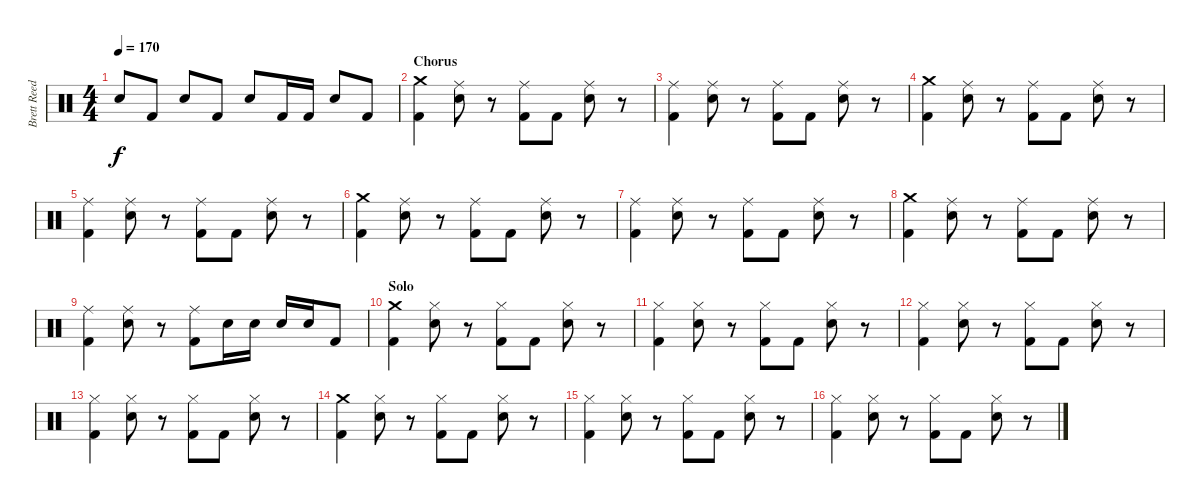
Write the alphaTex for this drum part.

\track ("Brett Reed" "Brett Reed") {instrument percussion}
\staff {score}
\articulation defaults
\ts (4 4)
\tempo 170
\clef neutral
\ks c "Snare (hit) 2".8{dy f} "Kick (hit) 2".8 "Snare (hit) 2".8 "Kick (hit) 2".8 "Snare (hit) 2".8 "Kick (hit) 2".16 "Kick (hit) 2".16 "Snare (hit) 2".8 "Kick (hit) 2".8
|
\section ("" "Chorus")
("Crash medium (hit)" "Kick (hit) 2").4 ("Ride (middle)" "Snare (hit) 2").8 r.8 ("Ride (middle)" "Kick (hit) 2").8 "Kick (hit) 2".8 ("Ride (middle)" "Snare (hit) 2").8 r.8 |
("Ride (middle)" "Kick (hit) 2").4 ("Ride (middle)" "Snare (hit) 2").8 r.8 ("Ride (middle)" "Kick (hit) 2").8 "Kick (hit) 2".8 ("Ride (middle)" "Snare (hit) 2").8 r.8 |
("Crash medium (hit)" "Kick (hit) 2").4 ("Ride (middle)" "Snare (hit) 2").8 r.8 ("Ride (middle)" "Kick (hit) 2").8 "Kick (hit) 2".8 ("Ride (middle)" "Snare (hit) 2").8 r.8 |
("Ride (middle)" "Kick (hit) 2").4 ("Ride (middle)" "Snare (hit) 2").8 r.8 ("Ride (middle)" "Kick (hit) 2").8 "Kick (hit) 2".8 ("Ride (middle)" "Snare (hit) 2").8 r.8 |
("Crash medium (hit)" "Kick (hit) 2").4 ("Ride (middle)" "Snare (hit) 2").8 r.8 ("Ride (middle)" "Kick (hit) 2").8 "Kick (hit) 2".8 ("Ride (middle)" "Snare (hit) 2").8 r.8 |
("Ride (middle)" "Kick (hit) 2").4 ("Ride (middle)" "Snare (hit) 2").8 r.8 ("Ride (middle)" "Kick (hit) 2").8 "Kick (hit) 2".8 ("Ride (middle)" "Snare (hit) 2").8 r.8 |
("Crash medium (hit)" "Kick (hit) 2").4 ("Ride (middle)" "Snare (hit) 2").8 r.8 ("Ride (middle)" "Kick (hit) 2").8 "Kick (hit) 2".8 ("Ride (middle)" "Snare (hit) 2").8 r.8 |
("Ride (middle)" "Kick (hit) 2").4 ("Ride (middle)" "Snare (hit) 2").8 r.8 ("Ride (middle)" "Kick (hit) 2").8 "Snare (hit) 2".16 "Snare (hit) 2".16 "Snare (hit) 2".16 "Snare (hit) 2".16 "Kick (hit) 2".8 |
\section ("" "Solo")
("Crash medium (hit)" "Kick (hit) 2").4 ("Hi-Hat (closed)" "Snare (hit) 2").8 r.8 ("Hi-Hat (closed)" "Kick (hit) 2").8 "Kick (hit) 2".8 ("Hi-Hat (closed)" "Snare (hit) 2").8 r.8 |
("Hi-Hat (closed)" "Kick (hit) 2").4 ("Hi-Hat (closed)" "Snare (hit) 2").8 r.8 ("Hi-Hat (closed)" "Kick (hit) 2").8 "Kick (hit) 2".8 ("Hi-Hat (closed)" "Snare (hit) 2").8 r.8 |
("Hi-Hat (closed)" "Kick (hit) 2").4 ("Hi-Hat (closed)" "Snare (hit) 2").8 r.8 ("Hi-Hat (closed)" "Kick (hit) 2").8 "Kick (hit) 2".8 ("Hi-Hat (closed)" "Snare (hit) 2").8 r.8 |
("Hi-Hat (closed)" "Kick (hit) 2").4 ("Hi-Hat (closed)" "Snare (hit) 2").8 r.8 ("Hi-Hat (closed)" "Kick (hit) 2").8 "Kick (hit) 2".8 ("Hi-Hat (closed)" "Snare (hit) 2").8 r.8 |
("Crash medium (hit)" "Kick (hit) 2").4 ("Hi-Hat (closed)" "Snare (hit) 2").8 r.8 ("Hi-Hat (closed)" "Kick (hit) 2").8 "Kick (hit) 2".8 ("Hi-Hat (closed)" "Snare (hit) 2").8 r.8 |
("Hi-Hat (closed)" "Kick (hit) 2").4 ("Hi-Hat (closed)" "Snare (hit) 2").8 r.8 ("Hi-Hat (closed)" "Kick (hit) 2").8 "Kick (hit) 2".8 ("Hi-Hat (closed)" "Snare (hit) 2").8 r.8 |
("Hi-Hat (closed)" "Kick (hit) 2").4 ("Hi-Hat (closed)" "Snare (hit) 2").8 r.8 ("Hi-Hat (closed)" "Kick (hit) 2").8 "Kick (hit) 2".8 ("Hi-Hat (closed)" "Snare (hit) 2").8 r.8
